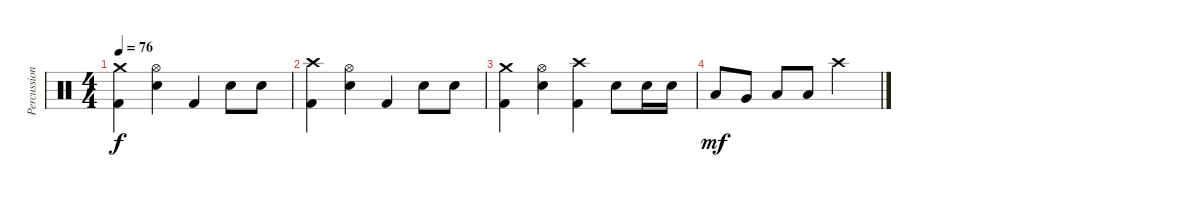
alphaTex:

\track ("Percussion" "Percussion") {instrument percussion}
\staff {score}
\articulation defaults
\ts (4 4)
\tempo 76
\clef neutral
\ks c
("Crash medium (hit)" "Kick (hit) 2").4{dy f} ("Hi-Hat (open)" "Electric Snare (hit)").4 "Kick (hit) 2".4 "Electric Snare (hit)".8 "Electric Snare (hit)".8 |
("Crash high (hit)" "Kick (hit) 2").4 ("Hi-Hat (open)" "Electric Snare (hit)").4 "Kick (hit) 2".4 "Electric Snare (hit)".8 "Electric Snare (hit)".8 |
("Crash medium (hit)" "Kick (hit) 2").4 ("Hi-Hat (open)" "Electric Snare (hit)").4 ("Crash high (hit)" "Kick (hit) 2").4 "Electric Snare (hit)".8 "Electric Snare (hit)".16 "Electric Snare (hit)".16 |
"Low Tom (hit)".8{dy mf} "Very Low Tom (hit)".8 "Low Floor Tom (hit)".8 "Low Floor Tom (hit)".8 "Crash high (hit)".2
